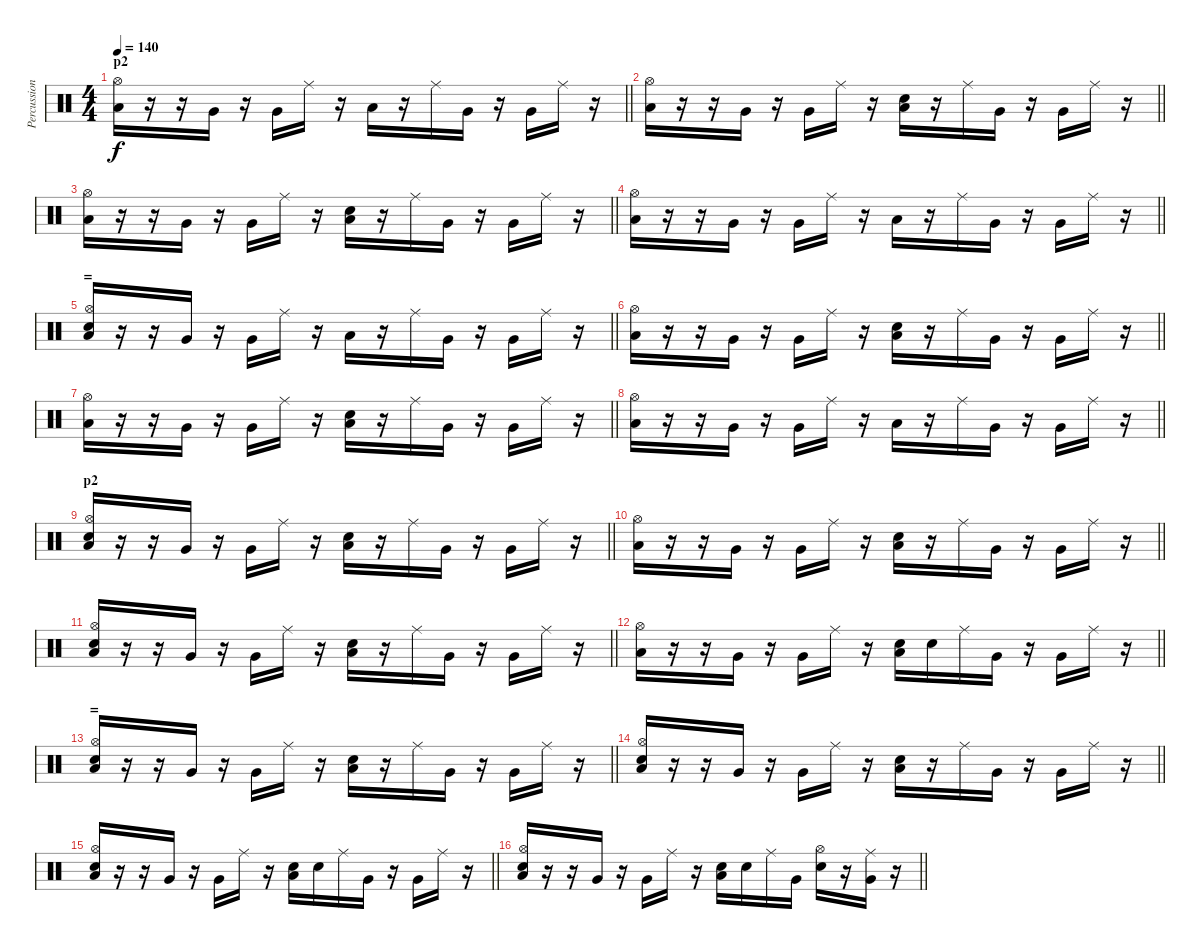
\track ("Percussion" "Percussion") {instrument percussion}
\staff {score}
\articulation defaults
\ts (4 4)
\section ("" "p2")
\tempo 140
\clef neutral
\barLineRight lightlight
\ks c
("Low Floor Tom (hit)" "Hi-Hat (open)").16{dy f} r.16 r.16 "Very Low Tom (hit)".16 r.16 "Very Low Tom (hit)".16 "Ride (middle)".16 r.16 "Low Floor Tom (hit)".16 r.16 "Ride (middle)".16 "Very Low Tom (hit)".16 r.16 "Very Low Tom (hit)".16 "Ride (middle)".16 r.16 |
\barLineRight lightlight
("Low Floor Tom (hit)" "Hi-Hat (open)").16 r.16 r.16 "Very Low Tom (hit)".16 r.16 "Very Low Tom (hit)".16 "Ride (middle)".16 r.16 ("Low Floor Tom (hit)" "Electric Snare (hit)").16 r.16 "Ride (middle)".16 "Very Low Tom (hit)".16 r.16 "Very Low Tom (hit)".16 "Ride (middle)".16 r.16 |
\barLineRight lightlight
("Low Floor Tom (hit)" "Hi-Hat (open)").16 r.16 r.16 "Very Low Tom (hit)".16 r.16 "Very Low Tom (hit)".16 "Ride (middle)".16 r.16 ("Low Floor Tom (hit)" "Electric Snare (hit)").16 r.16 "Ride (middle)".16 "Very Low Tom (hit)".16 r.16 "Very Low Tom (hit)".16 "Ride (middle)".16 r.16 |
\barLineRight lightlight
("Low Floor Tom (hit)" "Hi-Hat (open)").16 r.16 r.16 "Very Low Tom (hit)".16 r.16 "Very Low Tom (hit)".16 "Ride (middle)".16 r.16 "Low Floor Tom (hit)".16 r.16 "Ride (middle)".16 "Very Low Tom (hit)".16 r.16 "Very Low Tom (hit)".16 "Ride (middle)".16 r.16 |
\section ("" "=")
\barLineRight lightlight
("Low Floor Tom (hit)" "Hi-Hat (open)" "Electric Snare (hit)").16 r.16 r.16 "Very Low Tom (hit)".16 r.16 "Very Low Tom (hit)".16 "Ride (middle)".16 r.16 "Low Floor Tom (hit)".16 r.16 "Ride (middle)".16 "Very Low Tom (hit)".16 r.16 "Very Low Tom (hit)".16 "Ride (middle)".16 r.16 |
\barLineRight lightlight
("Low Floor Tom (hit)" "Hi-Hat (open)").16 r.16 r.16 "Very Low Tom (hit)".16 r.16 "Very Low Tom (hit)".16 "Ride (middle)".16 r.16 ("Low Floor Tom (hit)" "Electric Snare (hit)").16 r.16 "Ride (middle)".16 "Very Low Tom (hit)".16 r.16 "Very Low Tom (hit)".16 "Ride (middle)".16 r.16 |
\barLineRight lightlight
("Low Floor Tom (hit)" "Hi-Hat (open)").16 r.16 r.16 "Very Low Tom (hit)".16 r.16 "Very Low Tom (hit)".16 "Ride (middle)".16 r.16 ("Low Floor Tom (hit)" "Electric Snare (hit)").16 r.16 "Ride (middle)".16 "Very Low Tom (hit)".16 r.16 "Very Low Tom (hit)".16 "Ride (middle)".16 r.16 |
\barLineRight lightlight
("Low Floor Tom (hit)" "Hi-Hat (open)").16 r.16 r.16 "Very Low Tom (hit)".16 r.16 "Very Low Tom (hit)".16 "Ride (middle)".16 r.16 "Low Floor Tom (hit)".16 r.16 "Ride (middle)".16 "Very Low Tom (hit)".16 r.16 "Very Low Tom (hit)".16 "Ride (middle)".16 r.16 |
\section ("" "p2")
\barLineRight lightlight
("Low Floor Tom (hit)" "Hi-Hat (open)" "Electric Snare (hit)").16 r.16 r.16 "Very Low Tom (hit)".16 r.16 "Very Low Tom (hit)".16 "Ride (middle)".16 r.16 ("Low Floor Tom (hit)" "Electric Snare (hit)").16 r.16 "Ride (middle)".16 "Very Low Tom (hit)".16 r.16 "Very Low Tom (hit)".16 "Ride (middle)".16 r.16 |
\barLineRight lightlight
("Low Floor Tom (hit)" "Hi-Hat (open)").16 r.16 r.16 "Very Low Tom (hit)".16 r.16 "Very Low Tom (hit)".16 "Ride (middle)".16 r.16 ("Low Floor Tom (hit)" "Electric Snare (hit)").16 r.16 "Ride (middle)".16 "Very Low Tom (hit)".16 r.16 "Very Low Tom (hit)".16 "Ride (middle)".16 r.16 |
\barLineRight lightlight
("Low Floor Tom (hit)" "Hi-Hat (open)" "Electric Snare (hit)").16 r.16 r.16 "Very Low Tom (hit)".16 r.16 "Very Low Tom (hit)".16 "Ride (middle)".16 r.16 ("Low Floor Tom (hit)" "Electric Snare (hit)").16 r.16 "Ride (middle)".16 "Very Low Tom (hit)".16 r.16 "Very Low Tom (hit)".16 "Ride (middle)".16 r.16 |
\barLineRight lightlight
("Low Floor Tom (hit)" "Hi-Hat (open)").16 r.16 r.16 "Very Low Tom (hit)".16 r.16 "Very Low Tom (hit)".16 "Ride (middle)".16 r.16 ("Low Floor Tom (hit)" "Electric Snare (hit)").16 "Electric Snare (hit)".16 "Ride (middle)".16 "Very Low Tom (hit)".16 r.16 "Very Low Tom (hit)".16 "Ride (middle)".16 r.16 |
\section ("" "=")
\barLineRight lightlight
("Low Floor Tom (hit)" "Hi-Hat (open)" "Electric Snare (hit)").16 r.16 r.16 "Very Low Tom (hit)".16 r.16 "Very Low Tom (hit)".16 "Ride (middle)".16 r.16 ("Low Floor Tom (hit)" "Electric Snare (hit)").16 r.16 "Ride (middle)".16 "Very Low Tom (hit)".16 r.16 "Very Low Tom (hit)".16 "Ride (middle)".16 r.16 |
\barLineRight lightlight
("Low Floor Tom (hit)" "Hi-Hat (open)" "Electric Snare (hit)").16 r.16 r.16 "Very Low Tom (hit)".16 r.16 "Very Low Tom (hit)".16 "Ride (middle)".16 r.16 ("Low Floor Tom (hit)" "Electric Snare (hit)").16 r.16 "Ride (middle)".16 "Very Low Tom (hit)".16 r.16 "Very Low Tom (hit)".16 "Ride (middle)".16 r.16 |
\barLineRight lightlight
("Low Floor Tom (hit)" "Hi-Hat (open)" "Electric Snare (hit)").16 r.16 r.16 "Very Low Tom (hit)".16 r.16 "Very Low Tom (hit)".16 "Ride (middle)".16 r.16 ("Low Floor Tom (hit)" "Electric Snare (hit)").16 "Electric Snare (hit)".16 "Ride (middle)".16 "Very Low Tom (hit)".16 r.16 "Very Low Tom (hit)".16 "Ride (middle)".16 r.16 |
\barLineRight lightlight
("Low Floor Tom (hit)" "Hi-Hat (open)" "Electric Snare (hit)").16 r.16 r.16 "Very Low Tom (hit)".16 r.16 "Very Low Tom (hit)".16 "Ride (middle)".16 r.16 ("Low Floor Tom (hit)" "Electric Snare (hit)").16 "Electric Snare (hit)".16 "Ride (middle)".16 "Very Low Tom (hit)".16 ("Electric Snare (hit)" "Hi-Hat (open)").16 r.16 ("Very Low Tom (hit)" "Ride (middle)").16 r.16
